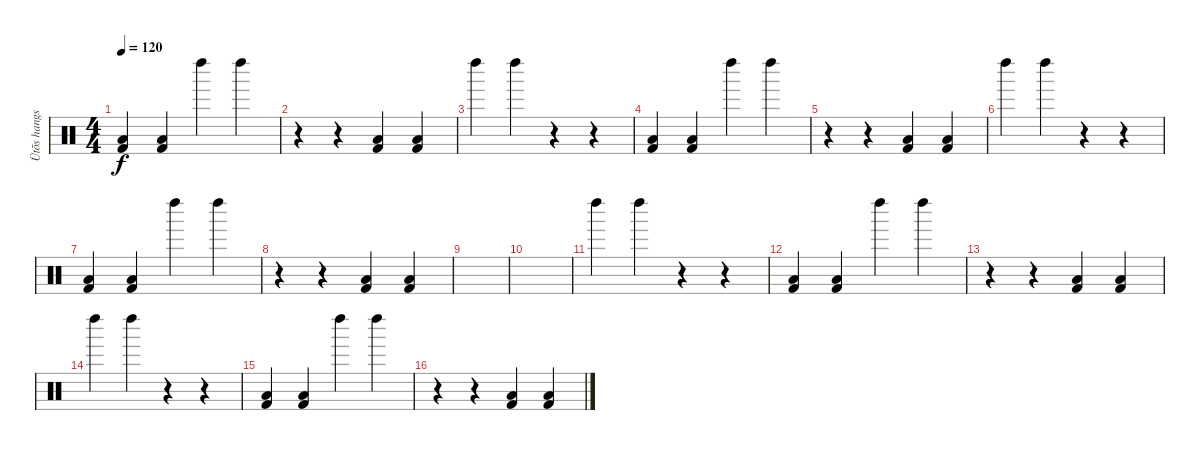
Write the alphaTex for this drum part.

\track ("Ütõs hangszer" "Ütõs hangs") {instrument percussion}
\staff {score}
\articulation defaults
\ts (4 4)
\tempo 120
\clef neutral
\ks c
("Kick (hit) 2" "Low Floor Tom (hit)").4{dy f} ("Kick (hit) 2" "Low Floor Tom (hit)").4 "Left Maraca (hit)".4 "Left Maraca (hit)".4 |
r.4 r.4 ("Kick (hit) 2" "Low Floor Tom (hit)").4 ("Kick (hit) 2" "Low Floor Tom (hit)").4 |
"Left Maraca (hit)".4 "Left Maraca (hit)".4 r.4 r.4 |
("Kick (hit) 2" "Low Floor Tom (hit)").4 ("Kick (hit) 2" "Low Floor Tom (hit)").4 "Left Maraca (hit)".4 "Left Maraca (hit)".4 |
r.4 r.4 ("Kick (hit) 2" "Low Floor Tom (hit)").4 ("Kick (hit) 2" "Low Floor Tom (hit)").4 |
"Left Maraca (hit)".4 "Left Maraca (hit)".4 r.4 r.4 |
("Kick (hit) 2" "Low Floor Tom (hit)").4 ("Kick (hit) 2" "Low Floor Tom (hit)").4 "Left Maraca (hit)".4 "Left Maraca (hit)".4 |
r.4 r.4 ("Kick (hit) 2" "Low Floor Tom (hit)").4 ("Kick (hit) 2" "Low Floor Tom (hit)").4 |
|
|
"Left Maraca (hit)".4 "Left Maraca (hit)".4 r.4 r.4 |
("Kick (hit) 2" "Low Floor Tom (hit)").4 ("Kick (hit) 2" "Low Floor Tom (hit)").4 "Left Maraca (hit)".4 "Left Maraca (hit)".4 |
r.4 r.4 ("Kick (hit) 2" "Low Floor Tom (hit)").4 ("Kick (hit) 2" "Low Floor Tom (hit)").4 |
"Left Maraca (hit)".4 "Left Maraca (hit)".4 r.4 r.4 |
("Kick (hit) 2" "Low Floor Tom (hit)").4 ("Kick (hit) 2" "Low Floor Tom (hit)").4 "Left Maraca (hit)".4 "Left Maraca (hit)".4 |
r.4 r.4 ("Kick (hit) 2" "Low Floor Tom (hit)").4 ("Kick (hit) 2" "Low Floor Tom (hit)").4
